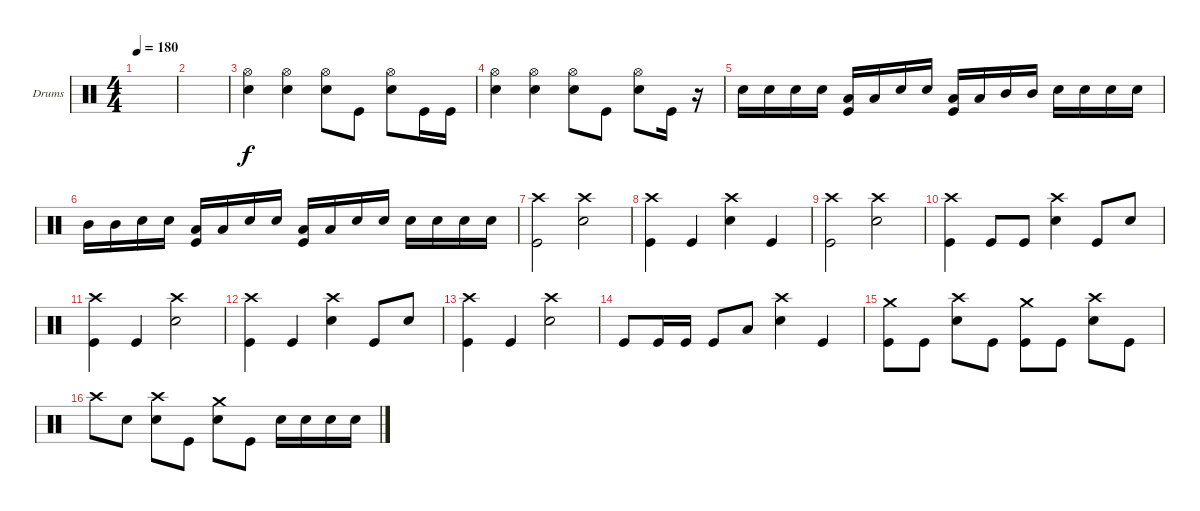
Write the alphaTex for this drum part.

\defaultSystemsLayout 4
\bracketExtendMode groupsimilarinstruments
\firstSystemTrackNameOrientation horizontal
\otherSystemsTrackNameOrientation horizontal
\track ("Drumkit" "Drums") {instrument percussion}
\staff {score}
\articulation defaults
\ts (4 4)
\tempo 180
\clef neutral
\ks c
|
|
("Snare (hit) 2" "Hi-Hat (open)").4 ("Snare (hit) 2" "Hi-Hat (open)").4 ("Snare (hit) 2" "Hi-Hat (open)").8 "Kick (hit)".8 ("Snare (hit) 2" "Hi-Hat (open)").8 "Kick (hit)".16 "Kick (hit)".16 |
("Snare (hit) 2" "Hi-Hat (open)").4 ("Snare (hit) 2" "Hi-Hat (open)").4 ("Snare (hit) 2" "Hi-Hat (open)").8 "Kick (hit)".8 ("Snare (hit) 2" "Hi-Hat (open)").8 "Kick (hit)".16 r.16 |
"Snare (hit) 2".16 "Snare (hit) 2".16 "Snare (hit) 2".16 "Snare (hit) 2".16 ("Kick (hit)" "Low Tom (hit)").16 "Low Tom (hit)".16 "Snare (hit) 2".16 "Snare (hit) 2".16 ("Kick (hit)" "Low Tom (hit)").16 "Low Tom (hit)".16 "Mid Tom (hit)".16 "Mid Tom (hit)".16 "Snare (hit) 2".16 "Snare (hit) 2".16 "Snare (hit) 2".16 "Snare (hit) 2".16 |
"Mid Tom (hit)".16 "Mid Tom (hit)".16 "Snare (hit) 2".16 "Snare (hit) 2".16 ("Kick (hit)" "Low Tom (hit)").16 "Low Tom (hit)".16 "Snare (hit) 2".16 "Snare (hit) 2".16 ("Kick (hit)" "Low Tom (hit)").16 "Low Tom (hit)".16 "Snare (hit) 2".16 "Snare (hit) 2".16 "Snare (hit) 2".16 "Snare (hit) 2".16 "Snare (hit) 2".16 "Snare (hit) 2".16 |
("Crash high (hit)" "Kick (hit)").2 ("Snare (hit) 2" "Crash high (hit)").2 |
("Kick (hit)" "Crash high (hit)").4 "Kick (hit)".4 ("Snare (hit) 2" "Crash high (hit)").4 "Kick (hit)".4 |
("Kick (hit)" "Crash high (hit)").2 ("Snare (hit) 2" "Crash high (hit)").2 |
("Kick (hit)" "Crash high (hit)").4 "Kick (hit)".8 "Kick (hit)".8 ("Snare (hit) 2" "Crash high (hit)").4 "Kick (hit)".8 "Snare (hit) 2".8 |
("Kick (hit)" "Crash high (hit)").4 "Kick (hit)".4 ("Snare (hit) 2" "Crash high (hit)").2 |
("Kick (hit)" "Crash high (hit)").4 "Kick (hit)".4 ("Snare (hit) 2" "Crash high (hit)").4 "Kick (hit)".8 "Snare (hit) 2".8 |
("Kick (hit)" "Crash high (hit)").4 "Kick (hit)".4 ("Snare (hit) 2" "Crash high (hit)").2 |
"Kick (hit)".8 "Kick (hit)".16 "Kick (hit)".16 "Kick (hit)".8 "Low Tom (hit)".8 ("Snare (hit) 2" "Crash high (hit)").4 "Kick (hit)".4 |
("Kick (hit)" "Crash medium (hit)").8 "Kick (hit)".8 ("Snare (hit) 2" "Crash high (hit)").8 "Kick (hit)".8 ("Kick (hit)" "Crash medium (hit)").8 "Kick (hit)".8 ("Snare (hit) 2" "Crash high (hit)").8 "Kick (hit)".8 |
"Crash high (hit)".8 "Snare (hit) 2".8 ("Snare (hit) 2" "Crash high (hit)").8 "Kick (hit)".8 ("Snare (hit) 2" "Crash medium (hit)").8 "Kick (hit)".8 "Snare (hit) 2".16 "Snare (hit) 2".16 "Snare (hit) 2".16 "Snare (hit) 2".16
